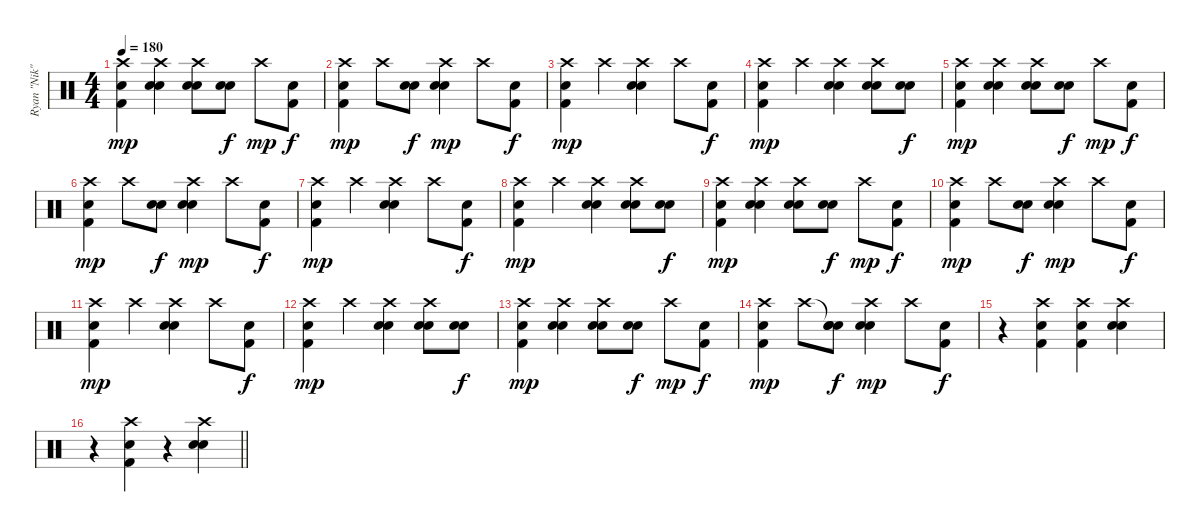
\track ("Ryan \"Nik\"" "Ryan \"Nik\"") {instrument percussion}
\staff {score}
\articulation defaults
\ts (4 4)
\tempo 180
\clef neutral
\ks c
("Crash high (hit)" "Electric Snare (hit)" "Kick (hit) 2").4{dy mp} ("Crash high (hit)" "Electric Snare (hit)" "Electric Snare (hit)").4 ("Crash high (hit)" "Electric Snare (hit)" "Electric Snare (hit)").8 ("Electric Snare (hit)" "Electric Snare (hit)").8{dy f} "Crash high (hit)".8{dy mp} ("Kick (hit) 2" "Electric Snare (hit)").8{dy f} |
("Crash high (hit)" "Electric Snare (hit)" "Kick (hit) 2").4{dy mp} "Crash high (hit)".8 ("Electric Snare (hit)" "Electric Snare (hit)").8{dy f} ("Crash high (hit)" "Electric Snare (hit)" "Electric Snare (hit)").4{dy mp} "Crash high (hit)".8 ("Kick (hit) 2" "Electric Snare (hit)").8{dy f} |
("Crash high (hit)" "Electric Snare (hit)" "Kick (hit) 2").4{dy mp} "Crash high (hit)".4 ("Crash high (hit)" "Electric Snare (hit)" "Electric Snare (hit)").4 "Crash high (hit)".8 ("Kick (hit) 2" "Electric Snare (hit)").8{dy f} |
("Crash high (hit)" "Electric Snare (hit)" "Kick (hit) 2").4{dy mp} "Crash high (hit)".4 ("Crash high (hit)" "Electric Snare (hit)" "Electric Snare (hit)").4 ("Crash high (hit)" "Electric Snare (hit)" "Electric Snare (hit)").8 ("Electric Snare (hit)" "Electric Snare (hit)").8{dy f} |
("Crash high (hit)" "Electric Snare (hit)" "Kick (hit) 2").4{dy mp} ("Crash high (hit)" "Electric Snare (hit)" "Electric Snare (hit)").4 ("Crash high (hit)" "Electric Snare (hit)" "Electric Snare (hit)").8 ("Electric Snare (hit)" "Electric Snare (hit)").8{dy f} "Crash high (hit)".8{dy mp} ("Kick (hit) 2" "Electric Snare (hit)").8{dy f} |
("Crash high (hit)" "Electric Snare (hit)" "Kick (hit) 2").4{dy mp} "Crash high (hit)".8 ("Electric Snare (hit)" "Electric Snare (hit)").8{dy f} ("Crash high (hit)" "Electric Snare (hit)" "Electric Snare (hit)").4{dy mp} "Crash high (hit)".8 ("Kick (hit) 2" "Electric Snare (hit)").8{dy f} |
("Crash high (hit)" "Electric Snare (hit)" "Kick (hit) 2").4{dy mp} "Crash high (hit)".4 ("Crash high (hit)" "Electric Snare (hit)" "Electric Snare (hit)").4 "Crash high (hit)".8 ("Kick (hit) 2" "Electric Snare (hit)").8{dy f} |
("Crash high (hit)" "Electric Snare (hit)" "Kick (hit) 2").4{dy mp} "Crash high (hit)".4 ("Crash high (hit)" "Electric Snare (hit)" "Electric Snare (hit)").4 ("Crash high (hit)" "Electric Snare (hit)" "Electric Snare (hit)").8 ("Electric Snare (hit)" "Electric Snare (hit)").8{dy f} |
("Crash high (hit)" "Electric Snare (hit)" "Kick (hit) 2").4{dy mp} ("Crash high (hit)" "Electric Snare (hit)" "Electric Snare (hit)").4 ("Crash high (hit)" "Electric Snare (hit)" "Electric Snare (hit)").8 ("Electric Snare (hit)" "Electric Snare (hit)").8{dy f} "Crash high (hit)".8{dy mp} ("Kick (hit) 2" "Electric Snare (hit)").8{dy f} |
("Crash high (hit)" "Electric Snare (hit)" "Kick (hit) 2").4{dy mp} "Crash high (hit)".8 ("Electric Snare (hit)" "Electric Snare (hit)").8{dy f} ("Crash high (hit)" "Electric Snare (hit)" "Electric Snare (hit)").4{dy mp} "Crash high (hit)".8 ("Kick (hit) 2" "Electric Snare (hit)").8{dy f} |
("Crash high (hit)" "Electric Snare (hit)" "Kick (hit) 2").4{dy mp} "Crash high (hit)".4 ("Crash high (hit)" "Electric Snare (hit)" "Electric Snare (hit)").4 "Crash high (hit)".8 ("Kick (hit) 2" "Electric Snare (hit)").8{dy f} |
("Crash high (hit)" "Electric Snare (hit)" "Kick (hit) 2").4{dy mp} "Crash high (hit)".4 ("Crash high (hit)" "Electric Snare (hit)" "Electric Snare (hit)").4 ("Crash high (hit)" "Electric Snare (hit)" "Electric Snare (hit)").8 ("Electric Snare (hit)" "Electric Snare (hit)").8{dy f} |
("Crash high (hit)" "Electric Snare (hit)" "Kick (hit) 2").4{dy mp} ("Crash high (hit)" "Electric Snare (hit)" "Electric Snare (hit)").4 ("Crash high (hit)" "Electric Snare (hit)" "Electric Snare (hit)").8 ("Electric Snare (hit)" "Electric Snare (hit)").8{dy f} "Crash high (hit)".8{dy mp} ("Kick (hit) 2" "Electric Snare (hit)").8{dy f} |
("Crash high (hit)" "Electric Snare (hit)" "Kick (hit) 2").4{dy mp} "Crash high (hit)".8 ("Snare (hit)"{t} "Electric Snare (hit)" "Electric Snare (hit)").8{dy f} ("Crash high (hit)" "Electric Snare (hit)" "Electric Snare (hit)").4{dy mp} "Crash high (hit)".8 ("Kick (hit) 2" "Electric Snare (hit)").8{dy f} |
r.4 ("Crash high (hit)" "Electric Snare (hit)" "Kick (hit) 2").4 ("Crash high (hit)" "Electric Snare (hit)" "Kick (hit) 2").4 ("Crash high (hit)" "Electric Snare (hit)" "Electric Snare (hit)").4 |
\barLineRight lightlight
r.4 ("Crash high (hit)" "Electric Snare (hit)" "Kick (hit) 2").4 r.4 ("Crash high (hit)" "Electric Snare (hit)" "Electric Snare (hit)").4
